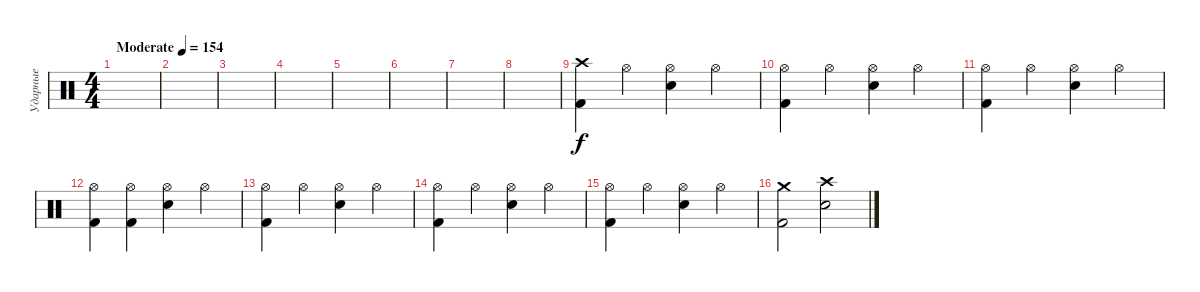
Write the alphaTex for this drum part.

\track ("Ударные" "Ударные") {instrument percussion}
\staff {score}
\articulation defaults
\ts (4 4)
\tempo (154 "Moderate")
\clef neutral
\ks c
|
|
|
|
|
|
|
|
("Crash high (hit)" "Kick (hit) 2").4 "Hi-Hat (open)".4 ("Hi-Hat (open)" "Snare (hit) 2").4 "Hi-Hat (open)".4 |
("Hi-Hat (open)" "Kick (hit) 2").4 "Hi-Hat (open)".4 ("Hi-Hat (open)" "Snare (hit) 2").4 "Hi-Hat (open)".4 |
("Hi-Hat (open)" "Kick (hit) 2").4 "Hi-Hat (open)".4 ("Hi-Hat (open)" "Snare (hit) 2").4 "Hi-Hat (open)".4 |
("Hi-Hat (open)" "Kick (hit) 2").4 ("Hi-Hat (open)" "Kick (hit) 2").4 ("Hi-Hat (open)" "Snare (hit) 2").4 "Hi-Hat (open)".4 |
("Hi-Hat (open)" "Kick (hit) 2").4 "Hi-Hat (open)".4 ("Hi-Hat (open)" "Snare (hit) 2").4 "Hi-Hat (open)".4 |
("Hi-Hat (open)" "Kick (hit) 2").4 "Hi-Hat (open)".4 ("Hi-Hat (open)" "Snare (hit) 2").4 "Hi-Hat (open)".4 |
("Hi-Hat (open)" "Kick (hit) 2").4 "Hi-Hat (open)".4 ("Hi-Hat (open)" "Snare (hit) 2").4 "Hi-Hat (open)".4 |
("Crash medium (hit)" "Kick (hit) 2").2 ("Crash high (hit)" "Snare (hit) 2").2
